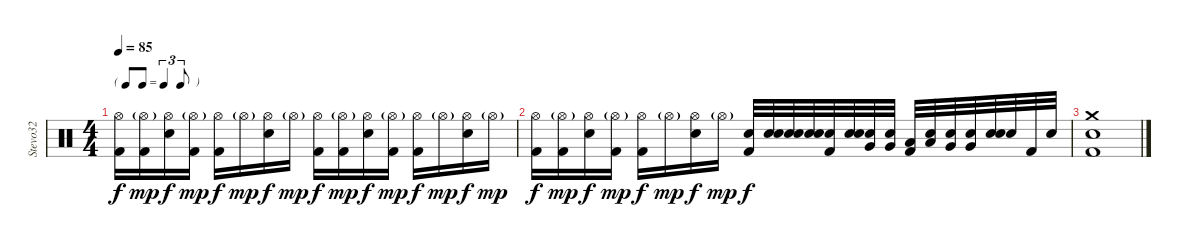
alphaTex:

\track ("Stevo32" "Stevo32") {instrument percussion}
\staff {score}
\articulation defaults
\ts (4 4)
\tf triplet8th
\tempo 85
\clef neutral
\ks c
("Hi-Hat (open)" "Kick (hit) 2").16{dy f} ("Hi-Hat (open)"{g} "Kick (hit) 2").16{dy mp} ("Hi-Hat (open)" "Electric Snare (hit)").16{dy f} ("Hi-Hat (open)"{g} "Kick (hit) 2").16{dy mp} ("Hi-Hat (open)" "Kick (hit) 2").16{dy f} "Hi-Hat (open)"{g}.16{dy mp} ("Hi-Hat (open)" "Electric Snare (hit)").16{dy f} "Hi-Hat (open)"{g}.16{dy mp} ("Hi-Hat (open)" "Kick (hit) 2").16{dy f} ("Hi-Hat (open)"{g} "Kick (hit) 2").16{dy mp} ("Hi-Hat (open)" "Electric Snare (hit)").16{dy f} ("Hi-Hat (open)"{g} "Kick (hit) 2").16{dy mp} ("Hi-Hat (open)" "Kick (hit) 2").16{dy f} "Hi-Hat (open)"{g}.16{dy mp} ("Hi-Hat (open)" "Electric Snare (hit)").16{dy f} "Hi-Hat (open)"{g}.16{dy mp} |
("Hi-Hat (open)" "Kick (hit) 2").16{dy f} ("Hi-Hat (open)"{g} "Kick (hit) 2").16{dy mp} ("Hi-Hat (open)" "Electric Snare (hit)").16{dy f} ("Hi-Hat (open)"{g} "Kick (hit) 2").16{dy mp} ("Hi-Hat (open)" "Kick (hit) 2").16{dy f} "Hi-Hat (open)"{g}.16{dy mp} ("Hi-Hat (open)" "Electric Snare (hit)").16{dy f} "Hi-Hat (open)"{g}.16{dy mp} ("Electric Snare (hit)" "Kick (hit) 2").32{dy f} ("Electric Snare (hit)" "Snare (hit)").32 ("Electric Snare (hit)" "Snare (hit)").32 ("Electric Snare (hit)" "Snare (hit)").32 ("Electric Snare (hit)" "Kick (hit) 2").32 ("Electric Snare (hit)" "Snare (hit)").32 ("Very Low Tom (hit)" "Snare (hit)").32 ("Very Low Tom (hit)" "Snare (hit)").32 ("Low Tom (hit)" "Kick (hit) 2").32 ("Low Tom (hit)" "Snare (hit)").32 ("Very Low Tom (hit)" "Snare (hit)").32 ("Very Low Tom (hit)" "Snare (hit)").32 ("Electric Snare (hit)" "Snare (hit)").32 "Snare (hit)".32 "Kick (hit) 2".32 "Snare (hit)".32 |
("Crash medium (hit)" "Kick (hit) 2" "Electric Snare (hit)").1
